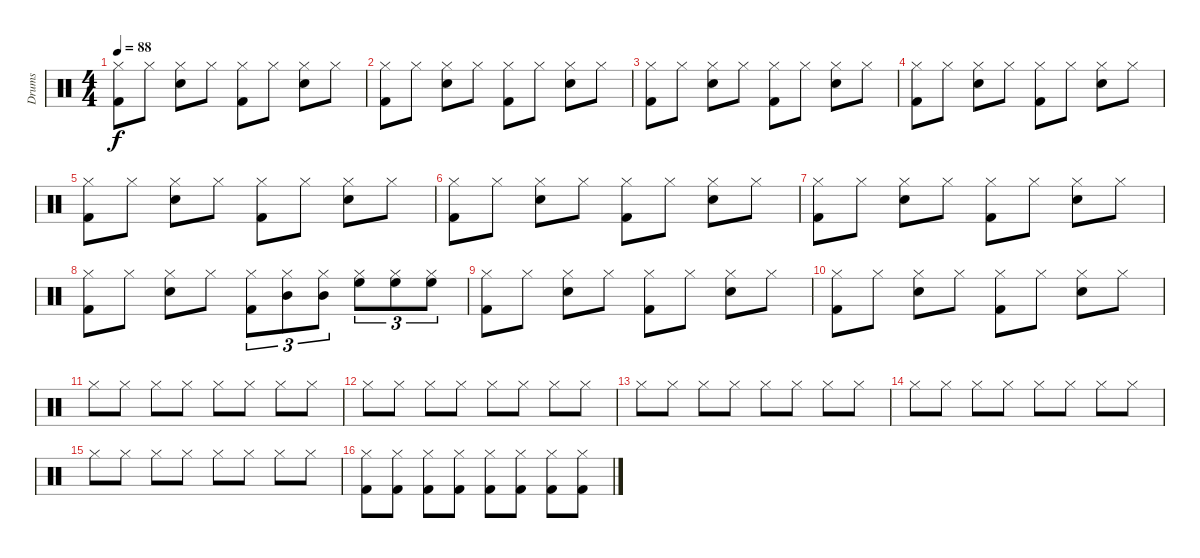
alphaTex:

\track ("Drums" "Drums") {instrument percussion}
\staff {score}
\articulation defaults
\ts (4 4)
\tempo 88
\clef neutral
\ks c
("Hi-Hat (closed)" "Kick (hit) 2").8{dy f} "Hi-Hat (closed)".8 ("Hi-Hat (closed)" "Snare (hit) 2").8 "Hi-Hat (closed)".8 ("Hi-Hat (closed)" "Kick (hit) 2").8 "Hi-Hat (closed)".8 ("Hi-Hat (closed)" "Snare (hit) 2").8 "Hi-Hat (closed)".8 |
("Hi-Hat (closed)" "Kick (hit) 2").8 "Hi-Hat (closed)".8 ("Hi-Hat (closed)" "Snare (hit) 2").8 "Hi-Hat (closed)".8 ("Hi-Hat (closed)" "Kick (hit) 2").8 "Hi-Hat (closed)".8 ("Hi-Hat (closed)" "Snare (hit) 2").8 "Hi-Hat (closed)".8 |
("Hi-Hat (closed)" "Kick (hit) 2").8 "Hi-Hat (closed)".8 ("Hi-Hat (closed)" "Snare (hit) 2").8 "Hi-Hat (closed)".8 ("Hi-Hat (closed)" "Kick (hit) 2").8 "Hi-Hat (closed)".8 ("Hi-Hat (closed)" "Snare (hit) 2").8 "Hi-Hat (closed)".8 |
("Hi-Hat (closed)" "Kick (hit) 2").8 "Hi-Hat (closed)".8 ("Hi-Hat (closed)" "Snare (hit) 2").8 "Hi-Hat (closed)".8 ("Hi-Hat (closed)" "Kick (hit) 2").8 "Hi-Hat (closed)".8 ("Hi-Hat (closed)" "Snare (hit) 2").8 "Hi-Hat (closed)".8 |
("Hi-Hat (closed)" "Kick (hit) 2").8 "Hi-Hat (closed)".8 ("Hi-Hat (closed)" "Snare (hit) 2").8 "Hi-Hat (closed)".8 ("Hi-Hat (closed)" "Kick (hit) 2").8 "Hi-Hat (closed)".8 ("Hi-Hat (closed)" "Snare (hit) 2").8 "Hi-Hat (closed)".8 |
("Hi-Hat (closed)" "Kick (hit) 2").8 "Hi-Hat (closed)".8 ("Hi-Hat (closed)" "Snare (hit) 2").8 "Hi-Hat (closed)".8 ("Hi-Hat (closed)" "Kick (hit) 2").8 "Hi-Hat (closed)".8 ("Hi-Hat (closed)" "Snare (hit) 2").8 "Hi-Hat (closed)".8 |
("Hi-Hat (closed)" "Kick (hit) 2").8 "Hi-Hat (closed)".8 ("Hi-Hat (closed)" "Snare (hit) 2").8 "Hi-Hat (closed)".8 ("Hi-Hat (closed)" "Kick (hit) 2").8 "Hi-Hat (closed)".8 ("Hi-Hat (closed)" "Snare (hit) 2").8 "Hi-Hat (closed)".8 |
("Hi-Hat (closed)" "Kick (hit) 2").8 "Hi-Hat (closed)".8 ("Hi-Hat (closed)" "Snare (hit) 2").8 "Hi-Hat (closed)".8 ("Hi-Hat (closed)" "Kick (hit) 2").8{tu (3 2)} ("Hi-Hat (closed)" "Mid Tom (hit)").8{tu (3 2)} ("Hi-Hat (closed)" "Mid Tom (hit)").8{tu (3 2)} ("Hi-Hat (closed)" "High Floor Tom (hit)").8{tu (3 2)} ("Hi-Hat (closed)" "High Floor Tom (hit)").8{tu (3 2)} ("Hi-Hat (closed)" "High Floor Tom (hit)").8{tu (3 2)} |
("Hi-Hat (closed)" "Kick (hit) 2").8 "Hi-Hat (closed)".8 ("Hi-Hat (closed)" "Snare (hit) 2").8 "Hi-Hat (closed)".8 ("Hi-Hat (closed)" "Kick (hit) 2").8 "Hi-Hat (closed)".8 ("Hi-Hat (closed)" "Snare (hit) 2").8 "Hi-Hat (closed)".8 |
("Hi-Hat (closed)" "Kick (hit) 2").8 "Hi-Hat (closed)".8 ("Hi-Hat (closed)" "Snare (hit) 2").8 "Hi-Hat (closed)".8 ("Hi-Hat (closed)" "Kick (hit) 2").8 "Hi-Hat (closed)".8 ("Hi-Hat (closed)" "Snare (hit) 2").8 "Hi-Hat (closed)".8 |
"Hi-Hat (closed)".8 "Hi-Hat (closed)".8 "Hi-Hat (closed)".8 "Hi-Hat (closed)".8 "Hi-Hat (closed)".8 "Hi-Hat (closed)".8 "Hi-Hat (closed)".8 "Hi-Hat (closed)".8 |
"Hi-Hat (closed)".8 "Hi-Hat (closed)".8 "Hi-Hat (closed)".8 "Hi-Hat (closed)".8 "Hi-Hat (closed)".8 "Hi-Hat (closed)".8 "Hi-Hat (closed)".8 "Hi-Hat (closed)".8 |
"Hi-Hat (closed)".8 "Hi-Hat (closed)".8 "Hi-Hat (closed)".8 "Hi-Hat (closed)".8 "Hi-Hat (closed)".8 "Hi-Hat (closed)".8 "Hi-Hat (closed)".8 "Hi-Hat (closed)".8 |
"Hi-Hat (closed)".8 "Hi-Hat (closed)".8 "Hi-Hat (closed)".8 "Hi-Hat (closed)".8 "Hi-Hat (closed)".8 "Hi-Hat (closed)".8 "Hi-Hat (closed)".8 "Hi-Hat (closed)".8 |
"Hi-Hat (closed)".8 "Hi-Hat (closed)".8 "Hi-Hat (closed)".8 "Hi-Hat (closed)".8 "Hi-Hat (closed)".8 "Hi-Hat (closed)".8 "Hi-Hat (closed)".8 "Hi-Hat (closed)".8 |
("Hi-Hat (closed)" "Kick (hit) 2").8 ("Hi-Hat (closed)" "Kick (hit) 2").8 ("Hi-Hat (closed)" "Kick (hit) 2").8 ("Hi-Hat (closed)" "Kick (hit) 2").8 ("Hi-Hat (closed)" "Kick (hit) 2").8 ("Hi-Hat (closed)" "Kick (hit) 2").8 ("Hi-Hat (closed)" "Kick (hit) 2").8 ("Hi-Hat (closed)" "Kick (hit) 2").8
